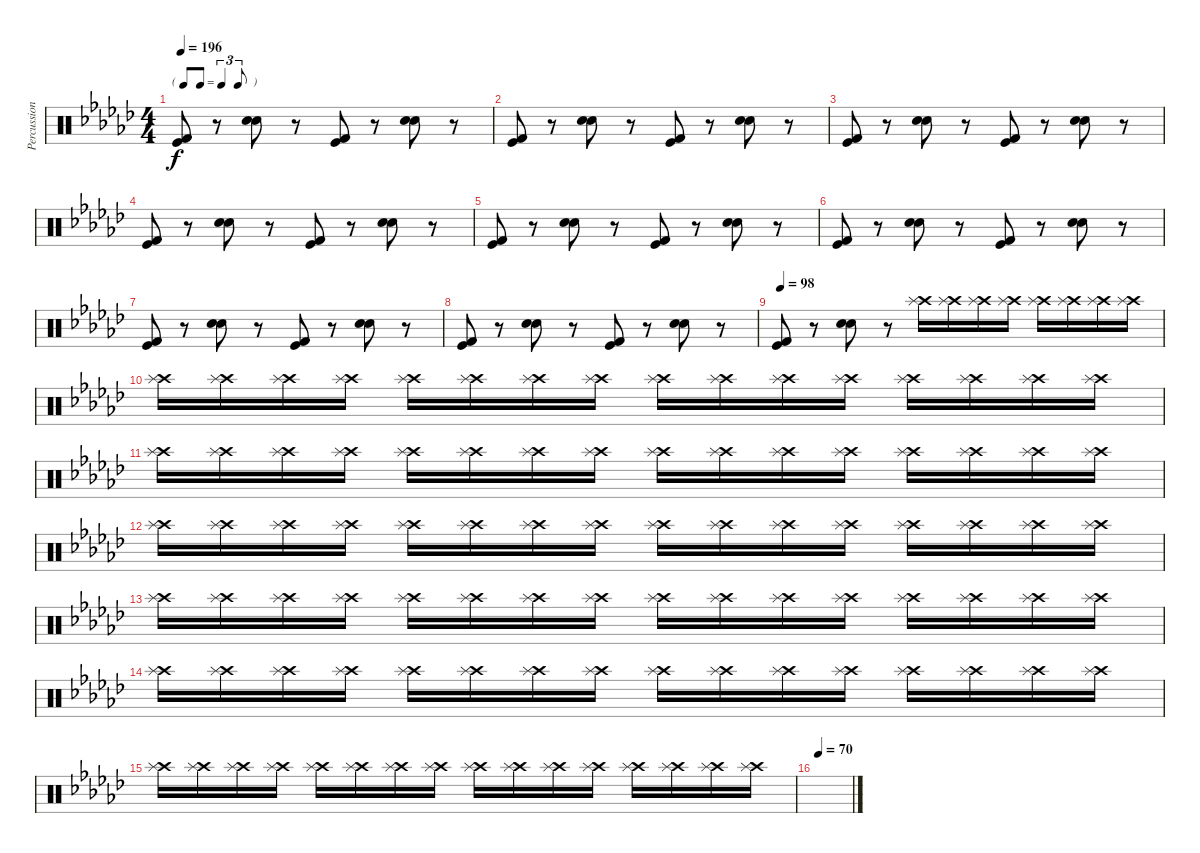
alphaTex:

\track ("Percussions" "Percussion") {instrument percussion}
\staff {score}
\articulation defaults
\ts (4 4)
\tf triplet8th
\tempo 196
\clef neutral
\ks gb
("Kick (hit) 2" "Kick (hit)").8{dy f} r.8 ("Snare (hit) 2" "Electric Snare (hit)").8 r.8 ("Kick (hit) 2" "Kick (hit)").8 r.8 ("Snare (hit) 2" "Electric Snare (hit)").8 r.8 |
("Kick (hit) 2" "Kick (hit)").8 r.8 ("Snare (hit) 2" "Electric Snare (hit)").8 r.8 ("Kick (hit) 2" "Kick (hit)").8 r.8 ("Snare (hit) 2" "Electric Snare (hit)").8 r.8 |
("Kick (hit) 2" "Kick (hit)").8 r.8 ("Snare (hit) 2" "Electric Snare (hit)").8 r.8 ("Kick (hit) 2" "Kick (hit)").8 r.8 ("Snare (hit) 2" "Electric Snare (hit)").8 r.8 |
("Kick (hit) 2" "Kick (hit)").8 r.8 ("Snare (hit) 2" "Electric Snare (hit)").8 r.8 ("Kick (hit) 2" "Kick (hit)").8 r.8 ("Snare (hit) 2" "Electric Snare (hit)").8 r.8 |
("Kick (hit) 2" "Kick (hit)").8 r.8 ("Snare (hit) 2" "Electric Snare (hit)").8 r.8 ("Kick (hit) 2" "Kick (hit)").8 r.8 ("Snare (hit) 2" "Electric Snare (hit)").8 r.8 |
("Kick (hit) 2" "Kick (hit)").8 r.8 ("Snare (hit) 2" "Electric Snare (hit)").8 r.8 ("Kick (hit) 2" "Kick (hit)").8 r.8 ("Snare (hit) 2" "Electric Snare (hit)").8 r.8 |
("Kick (hit) 2" "Kick (hit)").8 r.8 ("Snare (hit) 2" "Electric Snare (hit)").8 r.8 ("Kick (hit) 2" "Kick (hit)").8 r.8 ("Snare (hit) 2" "Electric Snare (hit)").8 r.8 |
("Kick (hit) 2" "Kick (hit)").8 r.8 ("Snare (hit) 2" "Electric Snare (hit)").8 r.8 ("Kick (hit) 2" "Kick (hit)").8 r.8 ("Snare (hit) 2" "Electric Snare (hit)").8 r.8 |
\tempo 98
("Kick (hit) 2" "Kick (hit)").8 r.8 ("Snare (hit) 2" "Electric Snare (hit)").8 r.8 ("Crash high (hit)" "Splash (hit)").16 ("Crash high (hit)" "Splash (hit)").16 ("Crash high (hit)" "Splash (hit)").16 ("Crash high (hit)" "Splash (hit)").16 ("Crash high (hit)" "Splash (hit)").16 ("Crash high (hit)" "Splash (hit)").16 ("Crash high (hit)" "Splash (hit)").16 ("Crash high (hit)" "Splash (hit)").16 |
("Crash high (hit)" "Splash (hit)").16 ("Crash high (hit)" "Splash (hit)").16 ("Crash high (hit)" "Splash (hit)").16 ("Crash high (hit)" "Splash (hit)").16 ("Crash high (hit)" "Splash (hit)").16 ("Crash high (hit)" "Splash (hit)").16 ("Crash high (hit)" "Splash (hit)").16 ("Crash high (hit)" "Splash (hit)").16 ("Crash high (hit)" "Splash (hit)").16 ("Crash high (hit)" "Splash (hit)").16 ("Crash high (hit)" "Splash (hit)").16 ("Crash high (hit)" "Splash (hit)").16 ("Crash high (hit)" "Splash (hit)").16 ("Crash high (hit)" "Splash (hit)").16 ("Crash high (hit)" "Splash (hit)").16 ("Crash high (hit)" "Splash (hit)").16 |
("Crash high (hit)" "Splash (hit)").16 ("Crash high (hit)" "Splash (hit)").16 ("Crash high (hit)" "Splash (hit)").16 ("Crash high (hit)" "Splash (hit)").16 ("Crash high (hit)" "Splash (hit)").16 ("Crash high (hit)" "Splash (hit)").16 ("Crash high (hit)" "Splash (hit)").16 ("Crash high (hit)" "Splash (hit)").16 ("Crash high (hit)" "Splash (hit)").16 ("Crash high (hit)" "Splash (hit)").16 ("Crash high (hit)" "Splash (hit)").16 ("Crash high (hit)" "Splash (hit)").16 ("Crash high (hit)" "Splash (hit)").16 ("Crash high (hit)" "Splash (hit)").16 ("Crash high (hit)" "Splash (hit)").16 ("Crash high (hit)" "Splash (hit)").16 |
("Crash high (hit)" "Splash (hit)").16 ("Crash high (hit)" "Splash (hit)").16 ("Crash high (hit)" "Splash (hit)").16 ("Crash high (hit)" "Splash (hit)").16 ("Crash high (hit)" "Splash (hit)").16 ("Crash high (hit)" "Splash (hit)").16 ("Crash high (hit)" "Splash (hit)").16 ("Crash high (hit)" "Splash (hit)").16 ("Crash high (hit)" "Splash (hit)").16 ("Crash high (hit)" "Splash (hit)").16 ("Crash high (hit)" "Splash (hit)").16 ("Crash high (hit)" "Splash (hit)").16 ("Crash high (hit)" "Splash (hit)").16 ("Crash high (hit)" "Splash (hit)").16 ("Crash high (hit)" "Splash (hit)").16 ("Crash high (hit)" "Splash (hit)").16 |
("Crash high (hit)" "Splash (hit)").16 ("Crash high (hit)" "Splash (hit)").16 ("Crash high (hit)" "Splash (hit)").16 ("Crash high (hit)" "Splash (hit)").16 ("Crash high (hit)" "Splash (hit)").16 ("Crash high (hit)" "Splash (hit)").16 ("Crash high (hit)" "Splash (hit)").16 ("Crash high (hit)" "Splash (hit)").16 ("Crash high (hit)" "Splash (hit)").16 ("Crash high (hit)" "Splash (hit)").16 ("Crash high (hit)" "Splash (hit)").16 ("Crash high (hit)" "Splash (hit)").16 ("Crash high (hit)" "Splash (hit)").16 ("Crash high (hit)" "Splash (hit)").16 ("Crash high (hit)" "Splash (hit)").16 ("Crash high (hit)" "Splash (hit)").16 |
("Crash high (hit)" "Splash (hit)").16 ("Crash high (hit)" "Splash (hit)").16 ("Crash high (hit)" "Splash (hit)").16 ("Crash high (hit)" "Splash (hit)").16 ("Crash high (hit)" "Splash (hit)").16 ("Crash high (hit)" "Splash (hit)").16 ("Crash high (hit)" "Splash (hit)").16 ("Crash high (hit)" "Splash (hit)").16 ("Crash high (hit)" "Splash (hit)").16 ("Crash high (hit)" "Splash (hit)").16 ("Crash high (hit)" "Splash (hit)").16 ("Crash high (hit)" "Splash (hit)").16 ("Crash high (hit)" "Splash (hit)").16 ("Crash high (hit)" "Splash (hit)").16 ("Crash high (hit)" "Splash (hit)").16 ("Crash high (hit)" "Splash (hit)").16 |
("Crash high (hit)" "Splash (hit)").16 ("Crash high (hit)" "Splash (hit)").16 ("Crash high (hit)" "Splash (hit)").16 ("Crash high (hit)" "Splash (hit)").16 ("Crash high (hit)" "Splash (hit)").16 ("Crash high (hit)" "Splash (hit)").16 ("Crash high (hit)" "Splash (hit)").16 ("Crash high (hit)" "Splash (hit)").16 ("Crash high (hit)" "Splash (hit)").16 ("Crash high (hit)" "Splash (hit)").16 ("Crash high (hit)" "Splash (hit)").16 ("Crash high (hit)" "Splash (hit)").16 ("Crash high (hit)" "Splash (hit)").16 ("Crash high (hit)" "Splash (hit)").16 ("Crash high (hit)" "Splash (hit)").16 ("Crash high (hit)" "Splash (hit)").16 |
\tempo (70 0.09375)
